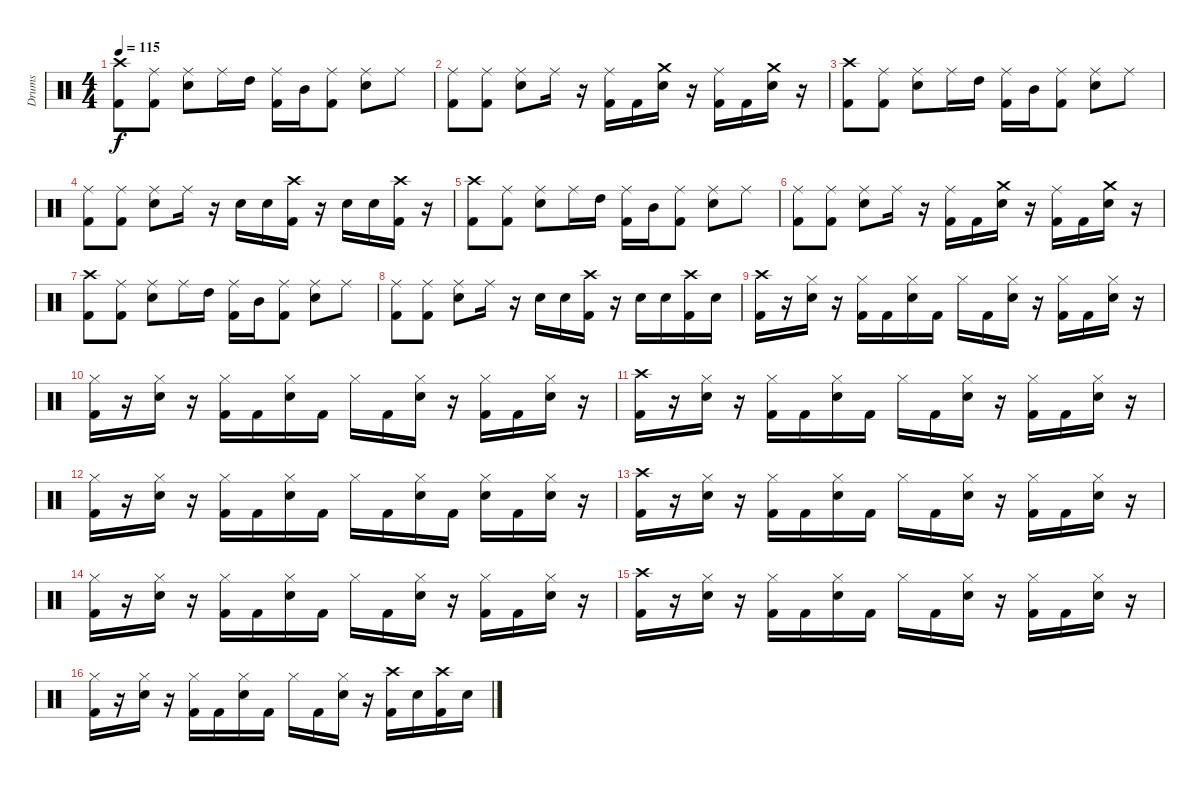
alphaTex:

\track ("Drums" "Drums") {instrument percussion}
\staff {score}
\articulation defaults
\ts (4 4)
\tempo 115
\clef neutral
\ks c
("Crash high (hit)" "Kick (hit) 2").8{dy f} ("Ride (middle)" "Kick (hit) 2").8 ("Ride (middle)" "Snare (hit) 2").8 "Ride (middle)".16 "High Tom (hit)".16 ("Ride (middle)" "Kick (hit) 2").16 "Mid Tom (hit)".16 ("Ride (middle)" "Kick (hit) 2").8 ("Ride (middle)" "Snare (hit) 2").8 "Ride (middle)".8 |
("Ride (middle)" "Kick (hit) 2").8 ("Ride (middle)" "Kick (hit) 2").8 ("Ride (middle)" "Snare (hit) 2").8 "Ride (middle)".16 r.16 ("Ride (middle)" "Kick (hit) 2").16 "Kick (hit) 2".16 ("Crash medium (hit)" "Snare (hit) 2").16 r.16 ("Ride (middle)" "Kick (hit) 2").16 "Kick (hit) 2".16 ("Crash medium (hit)" "Snare (hit) 2").16 r.16 |
("Crash high (hit)" "Kick (hit) 2").8 ("Ride (middle)" "Kick (hit) 2").8 ("Ride (middle)" "Snare (hit) 2").8 "Ride (middle)".16 "High Tom (hit)".16 ("Ride (middle)" "Kick (hit) 2").16 "Mid Tom (hit)".16 ("Ride (middle)" "Kick (hit) 2").8 ("Ride (middle)" "Snare (hit) 2").8 "Ride (middle)".8 |
("Ride (middle)" "Kick (hit) 2").8 ("Ride (middle)" "Kick (hit) 2").8 ("Ride (middle)" "Snare (hit) 2").8 "Ride (middle)".16 r.16 "Snare (hit) 2".16 "Snare (hit) 2".16 ("Crash high (hit)" "Kick (hit) 2").16 r.16 "Snare (hit) 2".16 "Snare (hit) 2".16 ("Crash high (hit)" "Kick (hit) 2").16 r.16 |
("Crash high (hit)" "Kick (hit) 2").8 ("Ride (middle)" "Kick (hit) 2").8 ("Ride (middle)" "Snare (hit) 2").8 "Ride (middle)".16 "High Tom (hit)".16 ("Ride (middle)" "Kick (hit) 2").16 "Mid Tom (hit)".16 ("Ride (middle)" "Kick (hit) 2").8 ("Ride (middle)" "Snare (hit) 2").8 "Ride (middle)".8 |
("Ride (middle)" "Kick (hit) 2").8 ("Ride (middle)" "Kick (hit) 2").8 ("Ride (middle)" "Snare (hit) 2").8 "Ride (middle)".16 r.16 ("Ride (middle)" "Kick (hit) 2").16 "Kick (hit) 2".16 ("Crash medium (hit)" "Snare (hit) 2").16 r.16 ("Ride (middle)" "Kick (hit) 2").16 "Kick (hit) 2".16 ("Crash medium (hit)" "Snare (hit) 2").16 r.16 |
("Crash high (hit)" "Kick (hit) 2").8 ("Ride (middle)" "Kick (hit) 2").8 ("Ride (middle)" "Snare (hit) 2").8 "Ride (middle)".16 "High Tom (hit)".16 ("Ride (middle)" "Kick (hit) 2").16 "Mid Tom (hit)".16 ("Ride (middle)" "Kick (hit) 2").8 ("Ride (middle)" "Snare (hit) 2").8 "Ride (middle)".8 |
("Ride (middle)" "Kick (hit) 2").8 ("Ride (middle)" "Kick (hit) 2").8 ("Ride (middle)" "Snare (hit) 2").8 "Ride (middle)".16 r.16 "Snare (hit) 2".16 "Snare (hit) 2".16 ("Crash high (hit)" "Kick (hit) 2").16 r.16 "Snare (hit) 2".16 "Snare (hit) 2".16 ("Crash high (hit)" "Kick (hit) 2").16 "Snare (hit) 2".16 |
("Crash high (hit)" "Kick (hit) 2").16 r.16 ("Hi-Hat (closed)" "Snare (hit) 2").16 r.16 ("Hi-Hat (closed)" "Kick (hit) 2").16 "Kick (hit) 2".16 ("Hi-Hat (closed)" "Snare (hit) 2").16 "Kick (hit) 2".16 "Hi-Hat (closed)".16 "Kick (hit) 2".16 ("Hi-Hat (closed)" "Snare (hit) 2").16 r.16 ("Hi-Hat (closed)" "Kick (hit) 2").16 "Kick (hit) 2".16 ("Hi-Hat (closed)" "Snare (hit) 2").16 r.16 |
("Hi-Hat (closed)" "Kick (hit) 2").16 r.16 ("Hi-Hat (closed)" "Snare (hit) 2").16 r.16 ("Hi-Hat (closed)" "Kick (hit) 2").16 "Kick (hit) 2".16 ("Hi-Hat (closed)" "Snare (hit) 2").16 "Kick (hit) 2".16 "Hi-Hat (closed)".16 "Kick (hit) 2".16 ("Hi-Hat (closed)" "Snare (hit) 2").16 r.16 ("Hi-Hat (closed)" "Kick (hit) 2").16 "Kick (hit) 2".16 ("Hi-Hat (closed)" "Snare (hit) 2").16 r.16 |
("Crash high (hit)" "Kick (hit) 2").16 r.16 ("Hi-Hat (closed)" "Snare (hit) 2").16 r.16 ("Hi-Hat (closed)" "Kick (hit) 2").16 "Kick (hit) 2".16 ("Hi-Hat (closed)" "Snare (hit) 2").16 "Kick (hit) 2".16 "Hi-Hat (closed)".16 "Kick (hit) 2".16 ("Hi-Hat (closed)" "Snare (hit) 2").16 r.16 ("Hi-Hat (closed)" "Kick (hit) 2").16 "Kick (hit) 2".16 ("Hi-Hat (closed)" "Snare (hit) 2").16 r.16 |
("Hi-Hat (closed)" "Kick (hit) 2").16 r.16 ("Hi-Hat (closed)" "Snare (hit) 2").16 r.16 ("Hi-Hat (closed)" "Kick (hit) 2").16 "Kick (hit) 2".16 ("Hi-Hat (closed)" "Snare (hit) 2").16 "Kick (hit) 2".16 "Hi-Hat (closed)".16 "Kick (hit) 2".16 ("Hi-Hat (closed)" "Snare (hit) 2").16 "Kick (hit) 2".16 ("Hi-Hat (closed)" "Snare (hit) 2").16 "Kick (hit) 2".16 ("Hi-Hat (closed)" "Snare (hit) 2").16 r.16 |
("Crash high (hit)" "Kick (hit) 2").16 r.16 ("Hi-Hat (closed)" "Snare (hit) 2").16 r.16 ("Hi-Hat (closed)" "Kick (hit) 2").16 "Kick (hit) 2".16 ("Hi-Hat (closed)" "Snare (hit) 2").16 "Kick (hit) 2".16 "Hi-Hat (closed)".16 "Kick (hit) 2".16 ("Hi-Hat (closed)" "Snare (hit) 2").16 r.16 ("Hi-Hat (closed)" "Kick (hit) 2").16 "Kick (hit) 2".16 ("Hi-Hat (closed)" "Snare (hit) 2").16 r.16 |
("Hi-Hat (closed)" "Kick (hit) 2").16 r.16 ("Hi-Hat (closed)" "Snare (hit) 2").16 r.16 ("Hi-Hat (closed)" "Kick (hit) 2").16 "Kick (hit) 2".16 ("Hi-Hat (closed)" "Snare (hit) 2").16 "Kick (hit) 2".16 "Hi-Hat (closed)".16 "Kick (hit) 2".16 ("Hi-Hat (closed)" "Snare (hit) 2").16 r.16 ("Hi-Hat (closed)" "Kick (hit) 2").16 "Kick (hit) 2".16 ("Hi-Hat (closed)" "Snare (hit) 2").16 r.16 |
("Crash high (hit)" "Kick (hit) 2").16 r.16 ("Hi-Hat (closed)" "Snare (hit) 2").16 r.16 ("Hi-Hat (closed)" "Kick (hit) 2").16 "Kick (hit) 2".16 ("Hi-Hat (closed)" "Snare (hit) 2").16 "Kick (hit) 2".16 "Hi-Hat (closed)".16 "Kick (hit) 2".16 ("Hi-Hat (closed)" "Snare (hit) 2").16 r.16 ("Hi-Hat (closed)" "Kick (hit) 2").16 "Kick (hit) 2".16 ("Hi-Hat (closed)" "Snare (hit) 2").16 r.16 |
("Hi-Hat (closed)" "Kick (hit) 2").16 r.16 ("Hi-Hat (closed)" "Snare (hit) 2").16 r.16 ("Hi-Hat (closed)" "Kick (hit) 2").16 "Kick (hit) 2".16 ("Hi-Hat (closed)" "Snare (hit) 2").16 "Kick (hit) 2".16 "Hi-Hat (closed)".16 "Kick (hit) 2".16 ("Hi-Hat (closed)" "Snare (hit) 2").16 r.16 ("Crash high (hit)" "Kick (hit) 2").16 "Snare (hit) 2".16 ("Crash high (hit)" "Kick (hit) 2").16 "Snare (hit) 2".16
